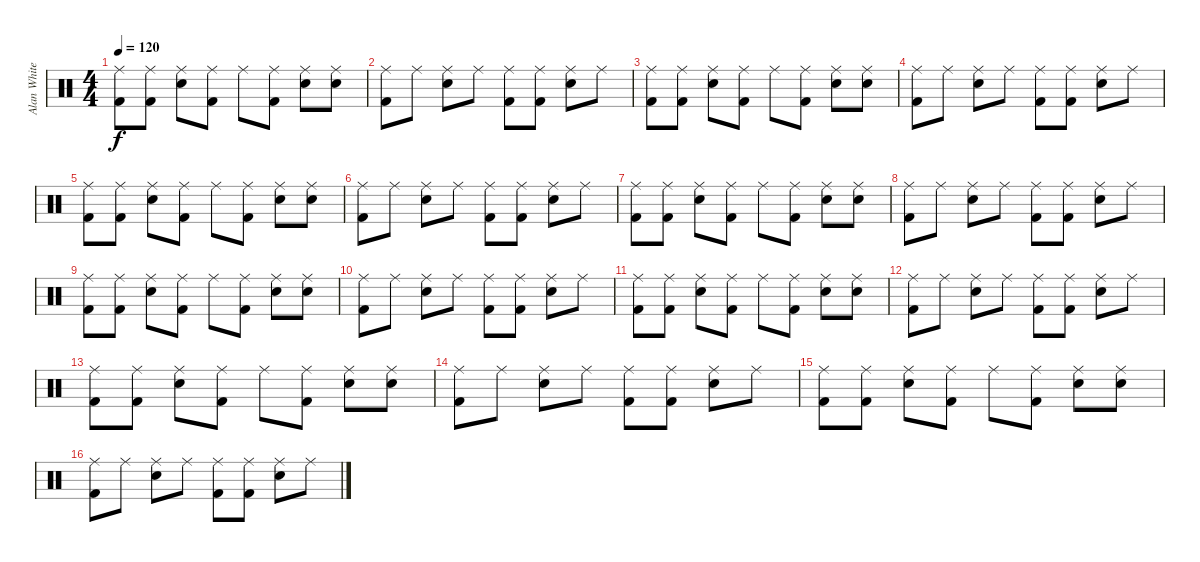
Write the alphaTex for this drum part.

\track ("Alan White - Drums" "Alan White") {instrument percussion}
\staff {score}
\articulation defaults
\ts (4 4)
\tempo 120
\clef neutral
\ks c
("Ride (middle)" "Kick (hit) 2").8{dy f} ("Ride (middle)" "Kick (hit) 2").8 ("Ride (middle)" "Electric Snare (hit)").8 ("Ride (middle)" "Kick (hit) 2").8 "Ride (middle)".8 ("Ride (middle)" "Kick (hit) 2").8 ("Ride (middle)" "Electric Snare (hit)").8 ("Ride (middle)" "Electric Snare (hit)").8 |
("Ride (middle)" "Kick (hit) 2").8 "Ride (middle)".8 ("Ride (middle)" "Electric Snare (hit)").8 "Ride (middle)".8 ("Ride (middle)" "Kick (hit) 2").8 ("Ride (middle)" "Kick (hit) 2").8 ("Ride (middle)" "Electric Snare (hit)").8 "Ride (middle)".8 |
("Ride (middle)" "Kick (hit) 2").8 ("Ride (middle)" "Kick (hit) 2").8 ("Ride (middle)" "Electric Snare (hit)").8 ("Ride (middle)" "Kick (hit) 2").8 "Ride (middle)".8 ("Ride (middle)" "Kick (hit) 2").8 ("Ride (middle)" "Electric Snare (hit)").8 ("Ride (middle)" "Electric Snare (hit)").8 |
("Ride (middle)" "Kick (hit) 2").8 "Ride (middle)".8 ("Ride (middle)" "Electric Snare (hit)").8 "Ride (middle)".8 ("Ride (middle)" "Kick (hit) 2").8 ("Ride (middle)" "Kick (hit) 2").8 ("Ride (middle)" "Electric Snare (hit)").8 "Ride (middle)".8 |
("Ride (middle)" "Kick (hit) 2").8 ("Ride (middle)" "Kick (hit) 2").8 ("Ride (middle)" "Electric Snare (hit)").8 ("Ride (middle)" "Kick (hit) 2").8 "Ride (middle)".8 ("Ride (middle)" "Kick (hit) 2").8 ("Ride (middle)" "Electric Snare (hit)").8 ("Ride (middle)" "Electric Snare (hit)").8 |
("Ride (middle)" "Kick (hit) 2").8 "Ride (middle)".8 ("Ride (middle)" "Electric Snare (hit)").8 "Ride (middle)".8 ("Ride (middle)" "Kick (hit) 2").8 ("Ride (middle)" "Kick (hit) 2").8 ("Ride (middle)" "Electric Snare (hit)").8 "Ride (middle)".8 |
("Ride (middle)" "Kick (hit) 2").8 ("Ride (middle)" "Kick (hit) 2").8 ("Ride (middle)" "Electric Snare (hit)").8 ("Ride (middle)" "Kick (hit) 2").8 "Ride (middle)".8 ("Ride (middle)" "Kick (hit) 2").8 ("Ride (middle)" "Electric Snare (hit)").8 ("Ride (middle)" "Electric Snare (hit)").8 |
("Ride (middle)" "Kick (hit) 2").8 "Ride (middle)".8 ("Ride (middle)" "Electric Snare (hit)").8 "Ride (middle)".8 ("Ride (middle)" "Kick (hit) 2").8 ("Ride (middle)" "Kick (hit) 2").8 ("Ride (middle)" "Electric Snare (hit)").8 "Ride (middle)".8 |
("Ride (middle)" "Kick (hit) 2").8 ("Ride (middle)" "Kick (hit) 2").8 ("Ride (middle)" "Electric Snare (hit)").8 ("Ride (middle)" "Kick (hit) 2").8 "Ride (middle)".8 ("Ride (middle)" "Kick (hit) 2").8 ("Ride (middle)" "Electric Snare (hit)").8 ("Ride (middle)" "Electric Snare (hit)").8 |
("Ride (middle)" "Kick (hit) 2").8 "Ride (middle)".8 ("Ride (middle)" "Electric Snare (hit)").8 "Ride (middle)".8 ("Ride (middle)" "Kick (hit) 2").8 ("Ride (middle)" "Kick (hit) 2").8 ("Ride (middle)" "Electric Snare (hit)").8 "Ride (middle)".8 |
("Ride (middle)" "Kick (hit) 2").8 ("Ride (middle)" "Kick (hit) 2").8 ("Ride (middle)" "Electric Snare (hit)").8 ("Ride (middle)" "Kick (hit) 2").8 "Ride (middle)".8 ("Ride (middle)" "Kick (hit) 2").8 ("Ride (middle)" "Electric Snare (hit)").8 ("Ride (middle)" "Electric Snare (hit)").8 |
("Ride (middle)" "Kick (hit) 2").8 "Ride (middle)".8 ("Ride (middle)" "Electric Snare (hit)").8 "Ride (middle)".8 ("Ride (middle)" "Kick (hit) 2").8 ("Ride (middle)" "Kick (hit) 2").8 ("Ride (middle)" "Electric Snare (hit)").8 "Ride (middle)".8 |
("Ride (middle)" "Kick (hit) 2").8 ("Ride (middle)" "Kick (hit) 2").8 ("Ride (middle)" "Electric Snare (hit)").8 ("Ride (middle)" "Kick (hit) 2").8 "Ride (middle)".8 ("Ride (middle)" "Kick (hit) 2").8 ("Ride (middle)" "Electric Snare (hit)").8 ("Ride (middle)" "Electric Snare (hit)").8 |
("Ride (middle)" "Kick (hit) 2").8 "Ride (middle)".8 ("Ride (middle)" "Electric Snare (hit)").8 "Ride (middle)".8 ("Ride (middle)" "Kick (hit) 2").8 ("Ride (middle)" "Kick (hit) 2").8 ("Ride (middle)" "Electric Snare (hit)").8 "Ride (middle)".8 |
("Ride (middle)" "Kick (hit) 2").8 ("Ride (middle)" "Kick (hit) 2").8 ("Ride (middle)" "Electric Snare (hit)").8 ("Ride (middle)" "Kick (hit) 2").8 "Ride (middle)".8 ("Ride (middle)" "Kick (hit) 2").8 ("Ride (middle)" "Electric Snare (hit)").8 ("Ride (middle)" "Electric Snare (hit)").8 |
("Ride (middle)" "Kick (hit) 2").8 "Ride (middle)".8 ("Ride (middle)" "Electric Snare (hit)").8 "Ride (middle)".8 ("Ride (middle)" "Kick (hit) 2").8 ("Ride (middle)" "Kick (hit) 2").8 ("Ride (middle)" "Electric Snare (hit)").8 "Ride (middle)".8
